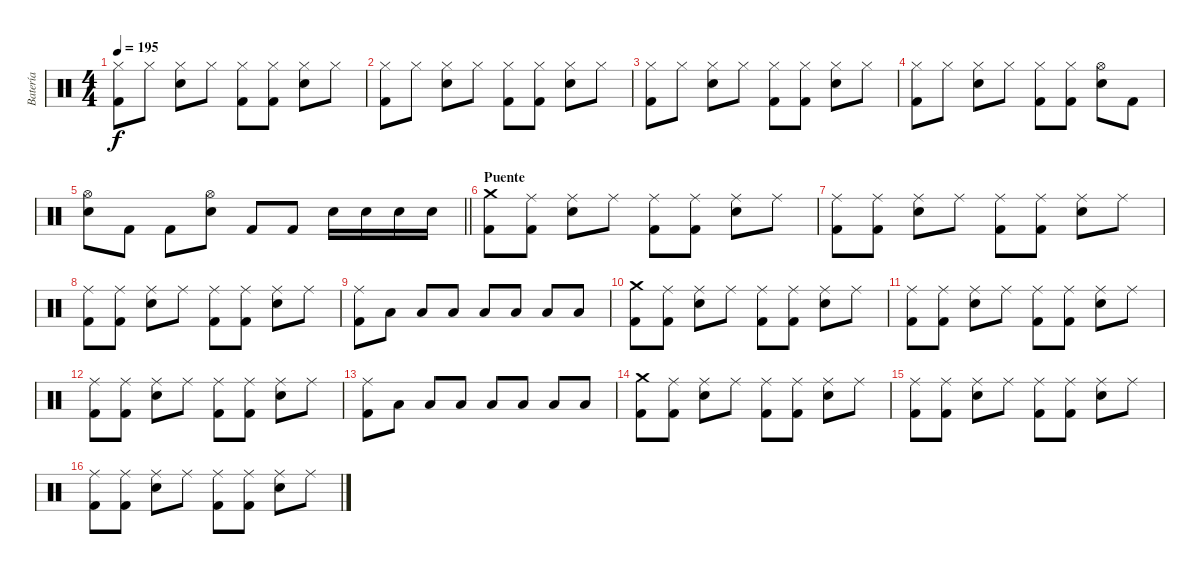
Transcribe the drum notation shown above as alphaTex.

\track ("Batería" "Batería") {instrument percussion}
\staff {score}
\articulation defaults
\ts (4 4)
\tempo 195
\clef neutral
\ks c
("Hi-Hat (closed)" "Kick (hit) 2").8{dy f} "Hi-Hat (closed)".8 ("Hi-Hat (closed)" "Snare (hit) 2").8 "Hi-Hat (closed)".8 ("Hi-Hat (closed)" "Kick (hit) 2").8 ("Hi-Hat (closed)" "Kick (hit) 2").8 ("Hi-Hat (closed)" "Snare (hit) 2").8 "Hi-Hat (closed)".8 |
("Hi-Hat (closed)" "Kick (hit) 2").8 "Hi-Hat (closed)".8 ("Hi-Hat (closed)" "Snare (hit) 2").8 "Hi-Hat (closed)".8 ("Hi-Hat (closed)" "Kick (hit) 2").8 ("Hi-Hat (closed)" "Kick (hit) 2").8 ("Hi-Hat (closed)" "Snare (hit) 2").8 "Hi-Hat (closed)".8 |
("Hi-Hat (closed)" "Kick (hit) 2").8 "Hi-Hat (closed)".8 ("Hi-Hat (closed)" "Snare (hit) 2").8 "Hi-Hat (closed)".8 ("Hi-Hat (closed)" "Kick (hit) 2").8 ("Hi-Hat (closed)" "Kick (hit) 2").8 ("Hi-Hat (closed)" "Snare (hit) 2").8 "Hi-Hat (closed)".8 |
("Hi-Hat (closed)" "Kick (hit) 2").8 "Hi-Hat (closed)".8 ("Hi-Hat (closed)" "Snare (hit) 2").8 "Hi-Hat (closed)".8 ("Hi-Hat (closed)" "Kick (hit) 2").8 ("Hi-Hat (closed)" "Kick (hit) 2").8 ("Hi-Hat (open)" "Snare (hit) 2").8 "Kick (hit) 2".8 |
\barLineRight lightlight
("Hi-Hat (open)" "Snare (hit) 2").8 "Kick (hit) 2".8 "Kick (hit) 2".8 ("Hi-Hat (open)" "Snare (hit) 2").8 "Kick (hit) 2".8 "Kick (hit) 2".8 "Snare (hit) 2".16 "Snare (hit) 2".16 "Snare (hit) 2".16 "Snare (hit) 2".16 |
\section ("" "Puente")
("Crash medium (hit)" "Kick (hit) 2").8 ("Ride (middle)" "Kick (hit) 2").8 ("Ride (middle)" "Snare (hit) 2").8 "Ride (middle)".8 ("Ride (middle)" "Kick (hit) 2").8 ("Ride (middle)" "Kick (hit) 2").8 ("Ride (middle)" "Snare (hit) 2").8 "Ride (middle)".8 |
("Ride (middle)" "Kick (hit) 2").8 ("Ride (middle)" "Kick (hit) 2").8 ("Ride (middle)" "Snare (hit) 2").8 "Ride (middle)".8 ("Ride (middle)" "Kick (hit) 2").8 ("Ride (middle)" "Kick (hit) 2").8 ("Ride (middle)" "Snare (hit) 2").8 "Ride (middle)".8 |
("Ride (middle)" "Kick (hit) 2").8 ("Ride (middle)" "Kick (hit) 2").8 ("Ride (middle)" "Snare (hit) 2").8 "Ride (middle)".8 ("Ride (middle)" "Kick (hit) 2").8 ("Ride (middle)" "Kick (hit) 2").8 ("Ride (middle)" "Snare (hit) 2").8 "Ride (middle)".8 |
("Ride (middle)" "Kick (hit) 2").8 "Low Tom (hit)".8 "Low Floor Tom (hit)".8 "Low Floor Tom (hit)".8 "Low Tom (hit)".8 "Low Floor Tom (hit)".8 "Low Floor Tom (hit)".8 "Low Tom (hit)".8 |
("Crash medium (hit)" "Kick (hit) 2").8 ("Ride (middle)" "Kick (hit) 2").8 ("Ride (middle)" "Snare (hit) 2").8 "Ride (middle)".8 ("Ride (middle)" "Kick (hit) 2").8 ("Ride (middle)" "Kick (hit) 2").8 ("Ride (middle)" "Snare (hit) 2").8 "Ride (middle)".8 |
("Ride (middle)" "Kick (hit) 2").8 ("Ride (middle)" "Kick (hit) 2").8 ("Ride (middle)" "Snare (hit) 2").8 "Ride (middle)".8 ("Ride (middle)" "Kick (hit) 2").8 ("Ride (middle)" "Kick (hit) 2").8 ("Ride (middle)" "Snare (hit) 2").8 "Ride (middle)".8 |
("Ride (middle)" "Kick (hit) 2").8 ("Ride (middle)" "Kick (hit) 2").8 ("Ride (middle)" "Snare (hit) 2").8 "Ride (middle)".8 ("Ride (middle)" "Kick (hit) 2").8 ("Ride (middle)" "Kick (hit) 2").8 ("Ride (middle)" "Snare (hit) 2").8 "Ride (middle)".8 |
("Ride (middle)" "Kick (hit) 2").8 "Low Tom (hit)".8 "Low Floor Tom (hit)".8 "Low Floor Tom (hit)".8 "Low Tom (hit)".8 "Low Floor Tom (hit)".8 "Low Floor Tom (hit)".8 "Low Tom (hit)".8 |
("Crash medium (hit)" "Kick (hit) 2").8 ("Ride (middle)" "Kick (hit) 2").8 ("Ride (middle)" "Snare (hit) 2").8 "Ride (middle)".8 ("Ride (middle)" "Kick (hit) 2").8 ("Ride (middle)" "Kick (hit) 2").8 ("Ride (middle)" "Snare (hit) 2").8 "Ride (middle)".8 |
("Ride (middle)" "Kick (hit) 2").8 ("Ride (middle)" "Kick (hit) 2").8 ("Ride (middle)" "Snare (hit) 2").8 "Ride (middle)".8 ("Ride (middle)" "Kick (hit) 2").8 ("Ride (middle)" "Kick (hit) 2").8 ("Ride (middle)" "Snare (hit) 2").8 "Ride (middle)".8 |
("Ride (middle)" "Kick (hit) 2").8 ("Ride (middle)" "Kick (hit) 2").8 ("Ride (middle)" "Snare (hit) 2").8 "Ride (middle)".8 ("Ride (middle)" "Kick (hit) 2").8 ("Ride (middle)" "Kick (hit) 2").8 ("Ride (middle)" "Snare (hit) 2").8 "Ride (middle)".8
